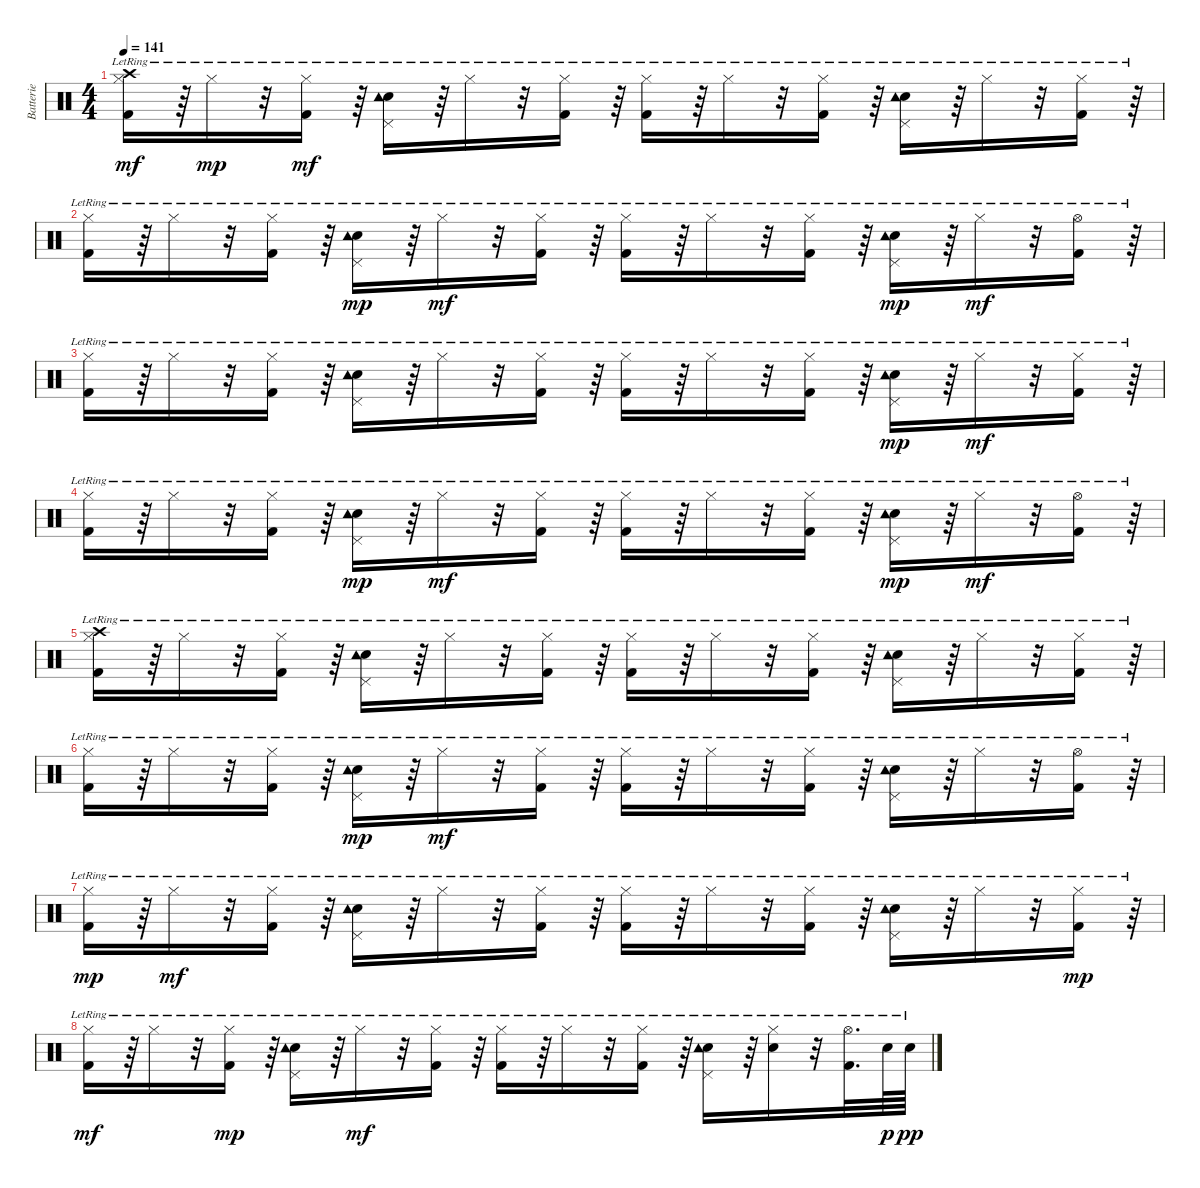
\track ("Batterie" "Batterie") {instrument percussion}
\staff {score}
\articulation defaults
\ts (4 4)
\tempo 141
\clef neutral
\ks c
("Hi-Hat (closed)"{lr} "Crash high (hit)"{lr} "Kick (hit) 2"{lr}).16{dy mf} r.64 "Hi-Hat (closed)"{lr}.16{dy mp} r.32 ("Hi-Hat (closed)"{lr} "Kick (hit) 2"{lr}).16{dy mf} r.64 ("Pedal Hi-Hat (hit)"{lr} "Snare (hit) 2"{lr} "Tambourine (hit)"{lr}).16 r.64 "Hi-Hat (closed)"{lr}.16 r.32 ("Hi-Hat (closed)"{lr} "Kick (hit) 2"{lr}).16 r.64 ("Hi-Hat (closed)"{lr} "Kick (hit) 2"{lr}).16 r.64 "Hi-Hat (closed)"{lr}.16 r.32 ("Hi-Hat (closed)"{lr} "Kick (hit) 2"{lr}).16 r.64 ("Pedal Hi-Hat (hit)"{lr} "Snare (hit) 2"{lr} "Tambourine (hit)"{lr}).16 r.64 "Hi-Hat (closed)"{lr}.16 r.32 ("Hi-Hat (closed)"{lr} "Kick (hit) 2"{lr}).16 r.64 |
("Hi-Hat (closed)"{lr} "Kick (hit) 2"{lr}).16 r.64 "Hi-Hat (closed)"{lr}.16 r.32 ("Hi-Hat (closed)"{lr} "Kick (hit) 2"{lr}).16 r.64 ("Pedal Hi-Hat (hit)"{lr} "Snare (hit) 2"{lr} "Tambourine (hit)"{lr}).16{dy mp} r.64 "Hi-Hat (closed)"{lr}.16{dy mf} r.32 ("Hi-Hat (closed)"{lr} "Kick (hit) 2"{lr}).16 r.64 ("Hi-Hat (closed)"{lr} "Kick (hit) 2"{lr}).16 r.64 "Hi-Hat (closed)"{lr}.16 r.32 ("Hi-Hat (closed)"{lr} "Kick (hit) 2"{lr}).16 r.64 ("Pedal Hi-Hat (hit)"{lr} "Snare (hit) 2"{lr} "Tambourine (hit)"{lr}).16{dy mp} r.64 "Hi-Hat (closed)"{lr}.16{dy mf} r.32 ("Hi-Hat (open)"{lr} "Kick (hit) 2"{lr}).16 r.64 |
("Hi-Hat (closed)"{lr} "Kick (hit) 2"{lr}).16 r.64 "Hi-Hat (closed)"{lr}.16 r.32 ("Hi-Hat (closed)"{lr} "Kick (hit) 2"{lr}).16 r.64 ("Pedal Hi-Hat (hit)"{lr} "Snare (hit) 2"{lr} "Tambourine (hit)"{lr}).16 r.64 "Hi-Hat (closed)"{lr}.16 r.32 ("Hi-Hat (closed)"{lr} "Kick (hit) 2"{lr}).16 r.64 ("Hi-Hat (closed)"{lr} "Kick (hit) 2"{lr}).16 r.64 "Hi-Hat (closed)"{lr}.16 r.32 ("Hi-Hat (closed)"{lr} "Kick (hit) 2"{lr}).16 r.64 ("Pedal Hi-Hat (hit)"{lr} "Snare (hit) 2"{lr} "Tambourine (hit)"{lr}).16{dy mp} r.64 "Hi-Hat (closed)"{lr}.16{dy mf} r.32 ("Hi-Hat (closed)"{lr} "Kick (hit) 2"{lr}).16 r.64 |
("Hi-Hat (closed)"{lr} "Kick (hit) 2"{lr}).16 r.64 "Hi-Hat (closed)"{lr}.16 r.32 ("Hi-Hat (closed)"{lr} "Kick (hit) 2"{lr}).16 r.64 ("Pedal Hi-Hat (hit)"{lr} "Snare (hit) 2"{lr} "Tambourine (hit)"{lr}).16{dy mp} r.64 "Hi-Hat (closed)"{lr}.16{dy mf} r.32 ("Hi-Hat (closed)"{lr} "Kick (hit) 2"{lr}).16 r.64 ("Hi-Hat (closed)"{lr} "Kick (hit) 2"{lr}).16 r.64 "Hi-Hat (closed)"{lr}.16 r.32 ("Hi-Hat (closed)"{lr} "Kick (hit) 2"{lr}).16 r.64 ("Pedal Hi-Hat (hit)"{lr} "Snare (hit) 2"{lr} "Tambourine (hit)"{lr}).16{dy mp} r.64 "Hi-Hat (closed)"{lr}.16{dy mf} r.32 ("Hi-Hat (open)"{lr} "Kick (hit) 2"{lr}).16 r.64 |
("Hi-Hat (closed)"{lr} "Crash high (hit)"{lr} "Kick (hit) 2"{lr}).16 r.64 "Hi-Hat (closed)"{lr}.16 r.32 ("Hi-Hat (closed)"{lr} "Kick (hit) 2"{lr}).16 r.64 ("Pedal Hi-Hat (hit)"{lr} "Snare (hit) 2"{lr} "Tambourine (hit)"{lr}).16 r.64 "Hi-Hat (closed)"{lr}.16 r.32 ("Hi-Hat (closed)"{lr} "Kick (hit) 2"{lr}).16 r.64 ("Hi-Hat (closed)"{lr} "Kick (hit) 2"{lr}).16 r.64 "Hi-Hat (closed)"{lr}.16 r.32 ("Hi-Hat (closed)"{lr} "Kick (hit) 2"{lr}).16 r.64 ("Pedal Hi-Hat (hit)"{lr} "Snare (hit) 2"{lr} "Tambourine (hit)"{lr}).16 r.64 "Hi-Hat (closed)"{lr}.16 r.32 ("Hi-Hat (closed)"{lr} "Kick (hit) 2"{lr}).16 r.64 |
("Hi-Hat (closed)"{lr} "Kick (hit) 2"{lr}).16 r.64 "Hi-Hat (closed)"{lr}.16 r.32 ("Hi-Hat (closed)"{lr} "Kick (hit) 2"{lr}).16 r.64 ("Pedal Hi-Hat (hit)"{lr} "Snare (hit) 2"{lr} "Tambourine (hit)"{lr}).16{dy mp} r.64 "Hi-Hat (closed)"{lr}.16{dy mf} r.32 ("Hi-Hat (closed)"{lr} "Kick (hit) 2"{lr}).16 r.64 ("Hi-Hat (closed)"{lr} "Kick (hit) 2"{lr}).16 r.64 "Hi-Hat (closed)"{lr}.16 r.32 ("Hi-Hat (closed)"{lr} "Kick (hit) 2"{lr}).16 r.64 ("Pedal Hi-Hat (hit)"{lr} "Snare (hit) 2"{lr} "Tambourine (hit)"{lr}).16 r.64 "Hi-Hat (closed)"{lr}.16 r.32 ("Hi-Hat (open)"{lr} "Kick (hit) 2"{lr}).16 r.64 |
("Hi-Hat (closed)"{lr} "Kick (hit) 2"{lr}).16{dy mp} r.64 "Hi-Hat (closed)"{lr}.16{dy mf} r.32 ("Hi-Hat (closed)"{lr} "Kick (hit) 2"{lr}).16 r.64 ("Pedal Hi-Hat (hit)"{lr} "Snare (hit) 2"{lr} "Tambourine (hit)"{lr}).16 r.64 "Hi-Hat (closed)"{lr}.16 r.32 ("Hi-Hat (closed)"{lr} "Kick (hit) 2"{lr}).16 r.64 ("Hi-Hat (closed)"{lr} "Kick (hit) 2"{lr}).16 r.64 "Hi-Hat (closed)"{lr}.16 r.32 ("Hi-Hat (closed)"{lr} "Kick (hit) 2"{lr}).16 r.64 ("Pedal Hi-Hat (hit)"{lr} "Snare (hit) 2"{lr} "Tambourine (hit)"{lr}).16 r.64 "Hi-Hat (closed)"{lr}.16 r.32 ("Hi-Hat (closed)"{lr} "Kick (hit) 2"{lr}).16{dy mp} r.64 |
("Hi-Hat (closed)"{lr} "Kick (hit) 2"{lr}).16{dy mf} r.64 "Hi-Hat (closed)"{lr}.16 r.32 ("Hi-Hat (closed)"{lr} "Kick (hit) 2"{lr}).16{dy mp} r.64 ("Pedal Hi-Hat (hit)"{lr} "Snare (hit) 2"{lr} "Tambourine (hit)"{lr}).16 r.64 "Hi-Hat (closed)"{lr}.16{dy mf} r.32 ("Hi-Hat (closed)"{lr} "Kick (hit) 2"{lr}).16 r.64 ("Hi-Hat (closed)"{lr} "Kick (hit) 2"{lr}).16 r.64 "Hi-Hat (closed)"{lr}.16 r.32 ("Hi-Hat (closed)"{lr} "Kick (hit) 2"{lr}).16 r.64 ("Pedal Hi-Hat (hit)"{lr} "Snare (hit) 2"{lr} "Tambourine (hit)"{lr}).16 r.64 ("Hi-Hat (closed)"{lr} "Snare (hit) 2"{lr}).16 r.32 ("Hi-Hat (open)"{lr} "Kick (hit) 2"{lr}).32{d} "Snare (hit) 2"{lr}.64{dy p} "Snare (hit) 2"{lr}.64{dy pp}
